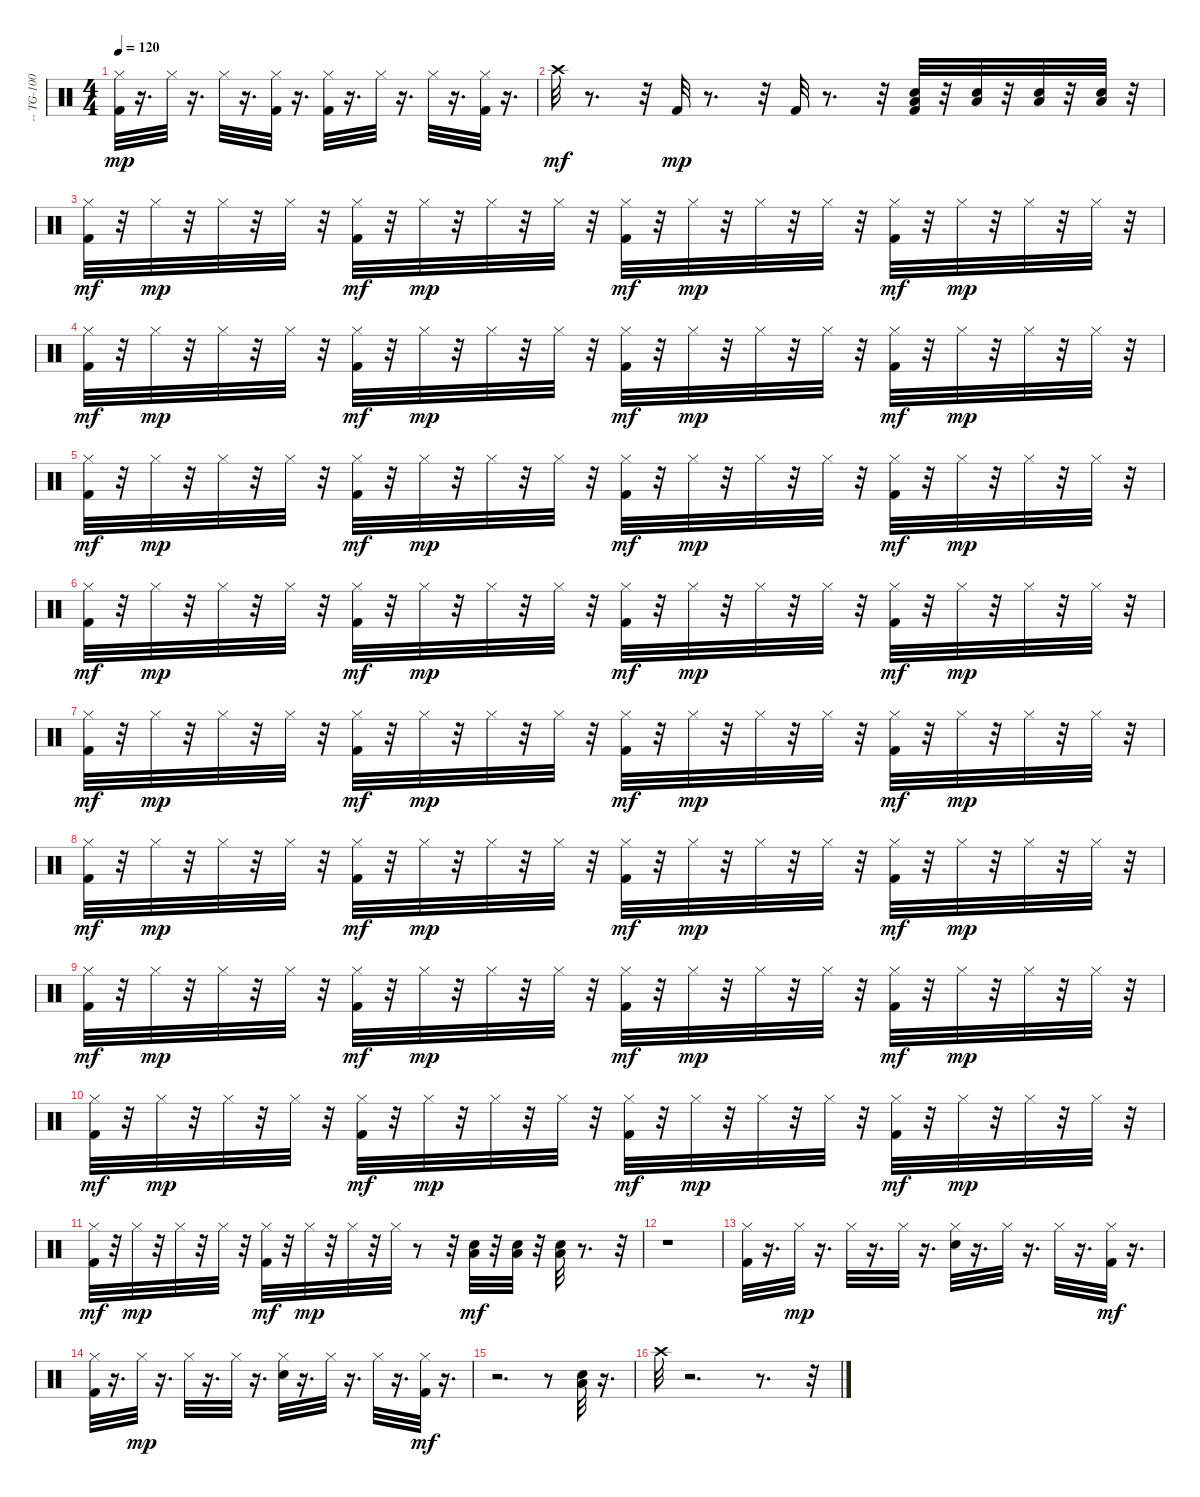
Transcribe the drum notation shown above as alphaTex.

\track ("-- TG-100 GS Drum --" "-- TG-100 ") {instrument percussion}
\staff {score}
\articulation defaults
\ts (4 4)
\tempo 120
\clef neutral
\ks c
("Hi-Hat (closed)" "Kick (hit) 2").32{dy mp} r.16{d} "Hi-Hat (closed)".32 r.16{d} "Hi-Hat (closed)".32 r.16{d} ("Hi-Hat (closed)" "Kick (hit) 2").32 r.16{d} ("Hi-Hat (closed)" "Kick (hit) 2").32 r.16{d} "Hi-Hat (closed)".32 r.16{d} "Hi-Hat (closed)".32 r.16{d} ("Hi-Hat (closed)" "Kick (hit) 2").32 r.16{d} |
"Crash high (hit)".32{dy mf} r.8{d} r.32 "Kick (hit) 2".32{dy mp} r.8{d} r.32 "Kick (hit) 2".32 r.8{d} r.32 ("Snare (hit) 2" "Low Floor Tom (hit)" "Kick (hit) 2").32 r.32 ("Snare (hit) 2" "Low Floor Tom (hit)").32 r.32 ("Snare (hit) 2" "Low Floor Tom (hit)").32 r.32 ("Snare (hit) 2" "Low Floor Tom (hit)").32 r.32 |
("Hi-Hat (closed)" "Kick (hit) 2").32{dy mf} r.32 "Hi-Hat (closed)".32{dy mp} r.32 "Hi-Hat (closed)".32 r.32 "Hi-Hat (closed)".32 r.32 ("Hi-Hat (closed)" "Kick (hit) 2").32{dy mf} r.32 "Hi-Hat (closed)".32{dy mp} r.32 "Hi-Hat (closed)".32 r.32 "Hi-Hat (closed)".32 r.32 ("Hi-Hat (closed)" "Kick (hit) 2").32{dy mf} r.32 "Hi-Hat (closed)".32{dy mp} r.32 "Hi-Hat (closed)".32 r.32 "Hi-Hat (closed)".32 r.32 ("Hi-Hat (closed)" "Kick (hit) 2").32{dy mf} r.32 "Hi-Hat (closed)".32{dy mp} r.32 "Hi-Hat (closed)".32 r.32 "Hi-Hat (closed)".32 r.32 |
("Hi-Hat (closed)" "Kick (hit) 2").32{dy mf} r.32 "Hi-Hat (closed)".32{dy mp} r.32 "Hi-Hat (closed)".32 r.32 "Hi-Hat (closed)".32 r.32 ("Hi-Hat (closed)" "Kick (hit) 2").32{dy mf} r.32 "Hi-Hat (closed)".32{dy mp} r.32 "Hi-Hat (closed)".32 r.32 "Hi-Hat (closed)".32 r.32 ("Hi-Hat (closed)" "Kick (hit) 2").32{dy mf} r.32 "Hi-Hat (closed)".32{dy mp} r.32 "Hi-Hat (closed)".32 r.32 "Hi-Hat (closed)".32 r.32 ("Hi-Hat (closed)" "Kick (hit) 2").32{dy mf} r.32 "Hi-Hat (closed)".32{dy mp} r.32 "Hi-Hat (closed)".32 r.32 "Hi-Hat (closed)".32 r.32 |
("Hi-Hat (closed)" "Kick (hit) 2").32{dy mf} r.32 "Hi-Hat (closed)".32{dy mp} r.32 "Hi-Hat (closed)".32 r.32 "Hi-Hat (closed)".32 r.32 ("Hi-Hat (closed)" "Kick (hit) 2").32{dy mf} r.32 "Hi-Hat (closed)".32{dy mp} r.32 "Hi-Hat (closed)".32 r.32 "Hi-Hat (closed)".32 r.32 ("Hi-Hat (closed)" "Kick (hit) 2").32{dy mf} r.32 "Hi-Hat (closed)".32{dy mp} r.32 "Hi-Hat (closed)".32 r.32 "Hi-Hat (closed)".32 r.32 ("Hi-Hat (closed)" "Kick (hit) 2").32{dy mf} r.32 "Hi-Hat (closed)".32{dy mp} r.32 "Hi-Hat (closed)".32 r.32 "Hi-Hat (closed)".32 r.32 |
("Hi-Hat (closed)" "Kick (hit) 2").32{dy mf} r.32 "Hi-Hat (closed)".32{dy mp} r.32 "Hi-Hat (closed)".32 r.32 "Hi-Hat (closed)".32 r.32 ("Hi-Hat (closed)" "Kick (hit) 2").32{dy mf} r.32 "Hi-Hat (closed)".32{dy mp} r.32 "Hi-Hat (closed)".32 r.32 "Hi-Hat (closed)".32 r.32 ("Hi-Hat (closed)" "Kick (hit) 2").32{dy mf} r.32 "Hi-Hat (closed)".32{dy mp} r.32 "Hi-Hat (closed)".32 r.32 "Hi-Hat (closed)".32 r.32 ("Hi-Hat (closed)" "Kick (hit) 2").32{dy mf} r.32 "Hi-Hat (closed)".32{dy mp} r.32 "Hi-Hat (closed)".32 r.32 "Hi-Hat (closed)".32 r.32 |
("Hi-Hat (closed)" "Kick (hit) 2").32{dy mf} r.32 "Hi-Hat (closed)".32{dy mp} r.32 "Hi-Hat (closed)".32 r.32 "Hi-Hat (closed)".32 r.32 ("Hi-Hat (closed)" "Kick (hit) 2").32{dy mf} r.32 "Hi-Hat (closed)".32{dy mp} r.32 "Hi-Hat (closed)".32 r.32 "Hi-Hat (closed)".32 r.32 ("Hi-Hat (closed)" "Kick (hit) 2").32{dy mf} r.32 "Hi-Hat (closed)".32{dy mp} r.32 "Hi-Hat (closed)".32 r.32 "Hi-Hat (closed)".32 r.32 ("Hi-Hat (closed)" "Kick (hit) 2").32{dy mf} r.32 "Hi-Hat (closed)".32{dy mp} r.32 "Hi-Hat (closed)".32 r.32 "Hi-Hat (closed)".32 r.32 |
("Hi-Hat (closed)" "Kick (hit) 2").32{dy mf} r.32 "Hi-Hat (closed)".32{dy mp} r.32 "Hi-Hat (closed)".32 r.32 "Hi-Hat (closed)".32 r.32 ("Hi-Hat (closed)" "Kick (hit) 2").32{dy mf} r.32 "Hi-Hat (closed)".32{dy mp} r.32 "Hi-Hat (closed)".32 r.32 "Hi-Hat (closed)".32 r.32 ("Hi-Hat (closed)" "Kick (hit) 2").32{dy mf} r.32 "Hi-Hat (closed)".32{dy mp} r.32 "Hi-Hat (closed)".32 r.32 "Hi-Hat (closed)".32 r.32 ("Hi-Hat (closed)" "Kick (hit) 2").32{dy mf} r.32 "Hi-Hat (closed)".32{dy mp} r.32 "Hi-Hat (closed)".32 r.32 "Hi-Hat (closed)".32 r.32 |
("Hi-Hat (closed)" "Kick (hit) 2").32{dy mf} r.32 "Hi-Hat (closed)".32{dy mp} r.32 "Hi-Hat (closed)".32 r.32 "Hi-Hat (closed)".32 r.32 ("Hi-Hat (closed)" "Kick (hit) 2").32{dy mf} r.32 "Hi-Hat (closed)".32{dy mp} r.32 "Hi-Hat (closed)".32 r.32 "Hi-Hat (closed)".32 r.32 ("Hi-Hat (closed)" "Kick (hit) 2").32{dy mf} r.32 "Hi-Hat (closed)".32{dy mp} r.32 "Hi-Hat (closed)".32 r.32 "Hi-Hat (closed)".32 r.32 ("Hi-Hat (closed)" "Kick (hit) 2").32{dy mf} r.32 "Hi-Hat (closed)".32{dy mp} r.32 "Hi-Hat (closed)".32 r.32 "Hi-Hat (closed)".32 r.32 |
("Hi-Hat (closed)" "Kick (hit) 2").32{dy mf} r.32 "Hi-Hat (closed)".32{dy mp} r.32 "Hi-Hat (closed)".32 r.32 "Hi-Hat (closed)".32 r.32 ("Hi-Hat (closed)" "Kick (hit) 2").32{dy mf} r.32 "Hi-Hat (closed)".32{dy mp} r.32 "Hi-Hat (closed)".32 r.32 "Hi-Hat (closed)".32 r.32 ("Hi-Hat (closed)" "Kick (hit) 2").32{dy mf} r.32 "Hi-Hat (closed)".32{dy mp} r.32 "Hi-Hat (closed)".32 r.32 "Hi-Hat (closed)".32 r.32 ("Hi-Hat (closed)" "Kick (hit) 2").32{dy mf} r.32 "Hi-Hat (closed)".32{dy mp} r.32 "Hi-Hat (closed)".32 r.32 "Hi-Hat (closed)".32 r.32 |
("Hi-Hat (closed)" "Kick (hit) 2").32{dy mf} r.32 "Hi-Hat (closed)".32{dy mp} r.32 "Hi-Hat (closed)".32 r.32 "Hi-Hat (closed)".32 r.32 ("Hi-Hat (closed)" "Kick (hit) 2").32{dy mf} r.32 "Hi-Hat (closed)".32{dy mp} r.32 "Hi-Hat (closed)".32 r.32 "Hi-Hat (closed)".32 r.8 r.32 ("Snare (hit) 2" "Low Floor Tom (hit)").32{dy mf} r.32 ("Snare (hit) 2" "Low Floor Tom (hit)").32 r.32 ("Snare (hit) 2" "Low Floor Tom (hit)").32 r.8{d} r.32 |
r.1 |
("Hi-Hat (closed)" "Kick (hit) 2").32 r.16{d} "Hi-Hat (closed)".32{dy mp} r.16{d} "Hi-Hat (closed)".32 r.16{d} "Hi-Hat (closed)".32 r.16{d} ("Hi-Hat (closed)" "Snare (hit) 2").32 r.16{d} "Hi-Hat (closed)".32 r.16{d} "Hi-Hat (closed)".32 r.16{d} ("Hi-Hat (closed)" "Kick (hit) 2").32{dy mf} r.16{d} |
("Hi-Hat (closed)" "Kick (hit) 2").32 r.16{d} "Hi-Hat (closed)".32{dy mp} r.16{d} "Hi-Hat (closed)".32 r.16{d} "Hi-Hat (closed)".32 r.16{d} ("Hi-Hat (closed)" "Snare (hit) 2").32 r.16{d} "Hi-Hat (closed)".32 r.16{d} "Hi-Hat (closed)".32 r.16{d} ("Hi-Hat (closed)" "Kick (hit) 2").32{dy mf} r.16{d} |
r.2{d} r.8 ("Snare (hit) 2" "Low Floor Tom (hit)").32 r.16{d} |
"Crash high (hit)".32 r.2{d} r.8{d} r.32
